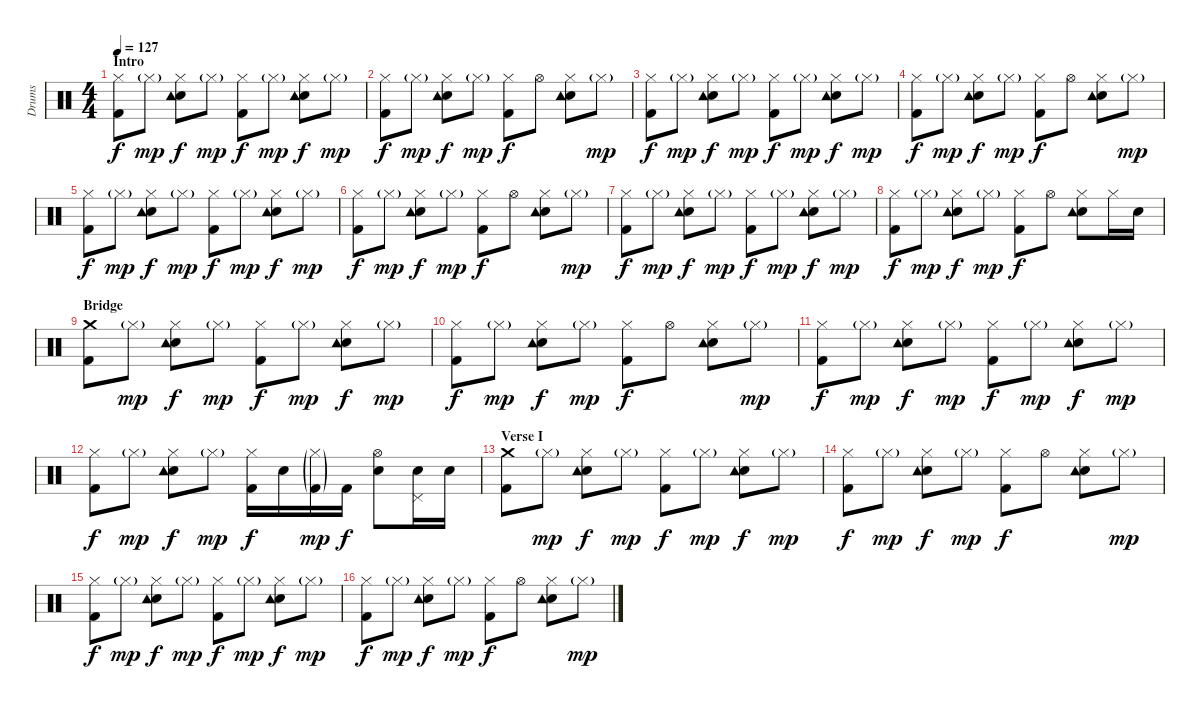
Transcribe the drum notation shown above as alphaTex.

\track ("Drums" "Drums") {instrument percussion}
\staff {score}
\articulation defaults
\ts (4 4)
\section ("" "Intro")
\tempo 127
\clef neutral
\ks c
("Hi-Hat (closed)" "Kick (hit) 2").8{dy f} "Hi-Hat (closed)"{g}.8{dy mp} ("Hi-Hat (closed)" "Snare (hit) 2" "Tambourine (hit)").8{dy f} "Hi-Hat (closed)"{g}.8{dy mp} ("Hi-Hat (closed)" "Kick (hit) 2").8{dy f} "Hi-Hat (closed)"{g}.8{dy mp} ("Hi-Hat (closed)" "Snare (hit) 2" "Tambourine (hit)").8{dy f} "Hi-Hat (closed)"{g}.8{dy mp} |
("Hi-Hat (closed)" "Kick (hit) 2").8{dy f} "Hi-Hat (closed)"{g}.8{dy mp} ("Hi-Hat (closed)" "Snare (hit) 2" "Tambourine (hit)").8{dy f} "Hi-Hat (closed)"{g}.8{dy mp} ("Hi-Hat (closed)" "Kick (hit) 2").8{dy f} "Hi-Hat (open)".8 ("Hi-Hat (closed)" "Snare (hit) 2" "Tambourine (hit)").8 "Hi-Hat (closed)"{g}.8{dy mp} |
("Hi-Hat (closed)" "Kick (hit) 2").8{dy f} "Hi-Hat (closed)"{g}.8{dy mp} ("Hi-Hat (closed)" "Snare (hit) 2" "Tambourine (hit)").8{dy f} "Hi-Hat (closed)"{g}.8{dy mp} ("Hi-Hat (closed)" "Kick (hit) 2").8{dy f} "Hi-Hat (closed)"{g}.8{dy mp} ("Hi-Hat (closed)" "Snare (hit) 2" "Tambourine (hit)").8{dy f} "Hi-Hat (closed)"{g}.8{dy mp} |
("Hi-Hat (closed)" "Kick (hit) 2").8{dy f} "Hi-Hat (closed)"{g}.8{dy mp} ("Hi-Hat (closed)" "Snare (hit) 2" "Tambourine (hit)").8{dy f} "Hi-Hat (closed)"{g}.8{dy mp} ("Hi-Hat (closed)" "Kick (hit) 2").8{dy f} "Hi-Hat (open)".8 ("Hi-Hat (closed)" "Snare (hit) 2" "Tambourine (hit)").8 "Hi-Hat (closed)"{g}.8{dy mp} |
("Hi-Hat (closed)" "Kick (hit) 2").8{dy f} "Hi-Hat (closed)"{g}.8{dy mp} ("Hi-Hat (closed)" "Snare (hit) 2" "Tambourine (hit)").8{dy f} "Hi-Hat (closed)"{g}.8{dy mp} ("Hi-Hat (closed)" "Kick (hit) 2").8{dy f} "Hi-Hat (closed)"{g}.8{dy mp} ("Hi-Hat (closed)" "Snare (hit) 2" "Tambourine (hit)").8{dy f} "Hi-Hat (closed)"{g}.8{dy mp} |
("Hi-Hat (closed)" "Kick (hit) 2").8{dy f} "Hi-Hat (closed)"{g}.8{dy mp} ("Hi-Hat (closed)" "Snare (hit) 2" "Tambourine (hit)").8{dy f} "Hi-Hat (closed)"{g}.8{dy mp} ("Hi-Hat (closed)" "Kick (hit) 2").8{dy f} "Hi-Hat (open)".8 ("Hi-Hat (closed)" "Snare (hit) 2" "Tambourine (hit)").8 "Hi-Hat (closed)"{g}.8{dy mp} |
("Hi-Hat (closed)" "Kick (hit) 2").8{dy f} "Hi-Hat (closed)"{g}.8{dy mp} ("Hi-Hat (closed)" "Snare (hit) 2" "Tambourine (hit)").8{dy f} "Hi-Hat (closed)"{g}.8{dy mp} ("Hi-Hat (closed)" "Kick (hit) 2").8{dy f} "Hi-Hat (closed)"{g}.8{dy mp} ("Hi-Hat (closed)" "Snare (hit) 2" "Tambourine (hit)").8{dy f} "Hi-Hat (closed)"{g}.8{dy mp} |
("Hi-Hat (closed)" "Kick (hit) 2").8{dy f} "Hi-Hat (closed)"{g}.8{dy mp} ("Hi-Hat (closed)" "Snare (hit) 2" "Tambourine (hit)").8{dy f} "Hi-Hat (closed)"{g}.8{dy mp} ("Hi-Hat (closed)" "Kick (hit) 2").8{dy f} "Hi-Hat (open)".8 ("Hi-Hat (closed)" "Snare (hit) 2" "Tambourine (hit)").8 "Hi-Hat (closed)".16 "Snare (hit) 2".16 |
\section ("" "Bridge")
("Crash medium (hit)" "Kick (hit) 2").8 "Hi-Hat (closed)"{g}.8{dy mp} ("Hi-Hat (closed)" "Snare (hit) 2" "Tambourine (hit)").8{dy f} "Hi-Hat (closed)"{g}.8{dy mp} ("Hi-Hat (closed)" "Kick (hit) 2").8{dy f} "Hi-Hat (closed)"{g}.8{dy mp} ("Hi-Hat (closed)" "Snare (hit) 2" "Tambourine (hit)").8{dy f} "Hi-Hat (closed)"{g}.8{dy mp} |
("Hi-Hat (closed)" "Kick (hit) 2").8{dy f} "Hi-Hat (closed)"{g}.8{dy mp} ("Hi-Hat (closed)" "Snare (hit) 2" "Tambourine (hit)").8{dy f} "Hi-Hat (closed)"{g}.8{dy mp} ("Hi-Hat (closed)" "Kick (hit) 2").8{dy f} "Hi-Hat (open)".8 ("Hi-Hat (closed)" "Snare (hit) 2" "Tambourine (hit)").8 "Hi-Hat (closed)"{g}.8{dy mp} |
("Hi-Hat (closed)" "Kick (hit) 2").8{dy f} "Hi-Hat (closed)"{g}.8{dy mp} ("Hi-Hat (closed)" "Snare (hit) 2" "Tambourine (hit)").8{dy f} "Hi-Hat (closed)"{g}.8{dy mp} ("Hi-Hat (closed)" "Kick (hit) 2").8{dy f} "Hi-Hat (closed)"{g}.8{dy mp} ("Hi-Hat (closed)" "Snare (hit) 2" "Tambourine (hit)").8{dy f} "Hi-Hat (closed)"{g}.8{dy mp} |
("Hi-Hat (closed)" "Kick (hit) 2").8{dy f} "Hi-Hat (closed)"{g}.8{dy mp} ("Hi-Hat (closed)" "Snare (hit) 2" "Tambourine (hit)").8{dy f} "Hi-Hat (closed)"{g}.8{dy mp} ("Hi-Hat (closed)" "Kick (hit) 2").16{dy f} "Snare (hit) 2".16 ("Hi-Hat (closed)"{g} "Kick (hit) 2"{g}).16{dy mp} "Kick (hit) 2".16{dy f} ("Hi-Hat (open)" "Snare (hit) 2").8 ("Pedal Hi-Hat (hit)" "Snare (hit) 2").16 "Snare (hit) 2".16 |
\section ("" "Verse I")
("Crash medium (hit)" "Kick (hit) 2").8 "Hi-Hat (closed)"{g}.8{dy mp} ("Hi-Hat (closed)" "Snare (hit) 2" "Tambourine (hit)").8{dy f} "Hi-Hat (closed)"{g}.8{dy mp} ("Hi-Hat (closed)" "Kick (hit) 2").8{dy f} "Hi-Hat (closed)"{g}.8{dy mp} ("Hi-Hat (closed)" "Snare (hit) 2" "Tambourine (hit)").8{dy f} "Hi-Hat (closed)"{g}.8{dy mp} |
("Hi-Hat (closed)" "Kick (hit) 2").8{dy f} "Hi-Hat (closed)"{g}.8{dy mp} ("Hi-Hat (closed)" "Snare (hit) 2" "Tambourine (hit)").8{dy f} "Hi-Hat (closed)"{g}.8{dy mp} ("Hi-Hat (closed)" "Kick (hit) 2").8{dy f} "Hi-Hat (open)".8 ("Hi-Hat (closed)" "Snare (hit) 2" "Tambourine (hit)").8 "Hi-Hat (closed)"{g}.8{dy mp} |
("Hi-Hat (closed)" "Kick (hit) 2").8{dy f} "Hi-Hat (closed)"{g}.8{dy mp} ("Hi-Hat (closed)" "Snare (hit) 2" "Tambourine (hit)").8{dy f} "Hi-Hat (closed)"{g}.8{dy mp} ("Hi-Hat (closed)" "Kick (hit) 2").8{dy f} "Hi-Hat (closed)"{g}.8{dy mp} ("Hi-Hat (closed)" "Snare (hit) 2" "Tambourine (hit)").8{dy f} "Hi-Hat (closed)"{g}.8{dy mp} |
("Hi-Hat (closed)" "Kick (hit) 2").8{dy f} "Hi-Hat (closed)"{g}.8{dy mp} ("Hi-Hat (closed)" "Snare (hit) 2" "Tambourine (hit)").8{dy f} "Hi-Hat (closed)"{g}.8{dy mp} ("Hi-Hat (closed)" "Kick (hit) 2").8{dy f} "Hi-Hat (open)".8 ("Hi-Hat (closed)" "Snare (hit) 2" "Tambourine (hit)").8 "Hi-Hat (closed)"{g}.8{dy mp}
